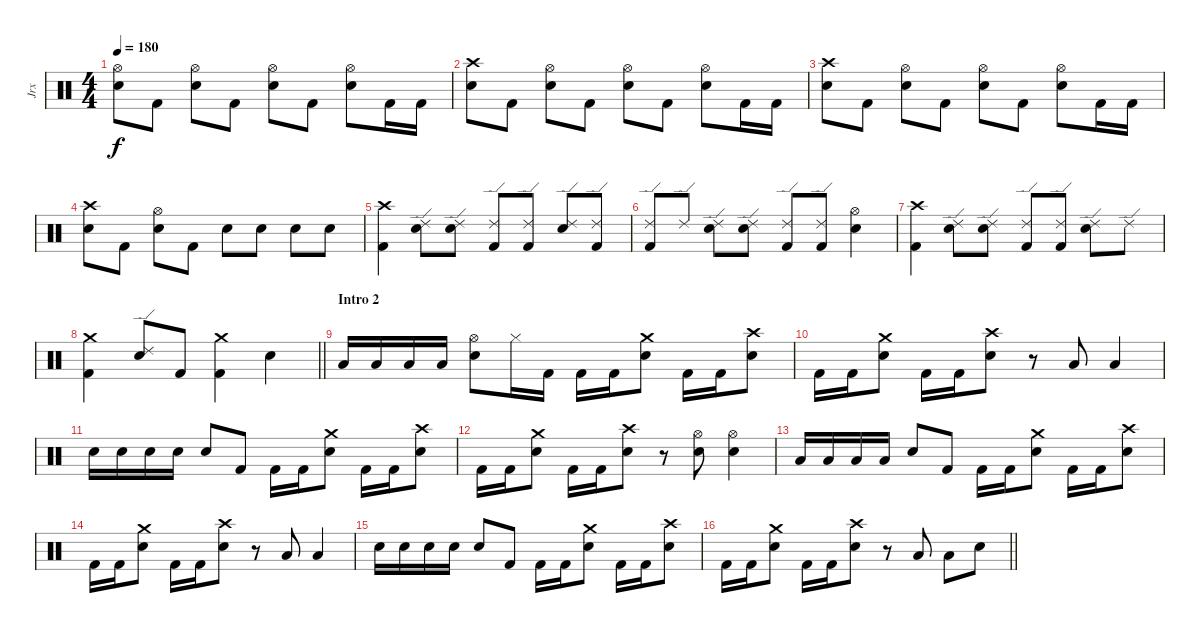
\track ("Jrx" "Jrx") {instrument percussion}
\staff {score}
\articulation defaults
\ts (4 4)
\tempo 180
\clef neutral
\ks c
("Electric Snare (hit)" "Hi-Hat (open)").8{dy f} "Kick (hit) 2".8 ("Electric Snare (hit)" "Hi-Hat (open)").8 "Kick (hit) 2".8 ("Snare (hit) 2" "Hi-Hat (open)").8 "Kick (hit) 2".8 ("Electric Snare (hit)" "Hi-Hat (open)").8 "Kick (hit) 2".16 "Kick (hit) 2".16 |
("Electric Snare (hit)" "Crash high (hit)").8 "Kick (hit) 2".8 ("Electric Snare (hit)" "Hi-Hat (open)").8 "Kick (hit) 2".8 ("Snare (hit) 2" "Hi-Hat (open)").8 "Kick (hit) 2".8 ("Electric Snare (hit)" "Hi-Hat (open)").8 "Kick (hit) 2".16 "Kick (hit) 2".16 |
("Electric Snare (hit)" "Crash high (hit)").8 "Kick (hit) 2".8 ("Electric Snare (hit)" "Hi-Hat (open)").8 "Kick (hit) 2".8 ("Snare (hit) 2" "Hi-Hat (open)").8 "Kick (hit) 2".8 ("Electric Snare (hit)" "Hi-Hat (open)").8 "Kick (hit) 2".16 "Kick (hit) 2".16 |
("Electric Snare (hit)" "Crash high (hit)").8 "Kick (hit) 2".8 ("Electric Snare (hit)" "Hi-Hat (open)").8 "Kick (hit) 2".8 "Electric Snare (hit)".8 "Electric Snare (hit)".8 "Electric Snare (hit)".8 "Electric Snare (hit)".8 |
("Kick (hit) 2" "Crash high (hit)").4 ("Electric Snare (hit)" "Ride (edge) 2").8 ("Electric Snare (hit)" "Ride (edge) 2").8 ("Kick (hit) 2" "Ride (edge) 2").8 ("Kick (hit) 2" "Ride (edge) 2").8 ("Electric Snare (hit)" "Ride (edge) 2").8 ("Kick (hit) 2" "Ride (edge) 2").8 |
("Kick (hit) 2" "Ride (edge) 2").8 "Ride (edge) 2".8 ("Electric Snare (hit)" "Ride (edge) 2").8 ("Electric Snare (hit)" "Ride (edge) 2").8 ("Kick (hit) 2" "Ride (edge) 2").8 ("Kick (hit) 2" "Ride (edge) 2").8 ("Electric Snare (hit)" "Hi-Hat (open)").4 |
("Kick (hit) 2" "Crash high (hit)").4 ("Electric Snare (hit)" "Ride (edge) 2").8 ("Electric Snare (hit)" "Ride (edge) 2").8 ("Kick (hit) 2" "Ride (edge) 2").8 ("Kick (hit) 2" "Ride (edge) 2").8 ("Electric Snare (hit)" "Ride (edge) 2").8 "Ride (edge) 2".8 |
\barLineRight lightlight
("Kick (hit) 2" "Crash medium (hit)").4 ("Electric Snare (hit)" "Ride (edge) 2").8 "Kick (hit) 2".8 ("Kick (hit) 2" "Crash medium (hit)").4 "Electric Snare (hit)".4 |
\section ("" "Intro 2")
"Low Tom (hit)".16 "Low Tom (hit)".16 "Low Tom (hit)".16 "Low Tom (hit)".16 ("Electric Snare (hit)" "Hi-Hat (open)").8 "Hi-Hat (closed)".16 "Kick (hit) 2".16 "Kick (hit) 2".16 "Kick (hit) 2".16 ("Electric Snare (hit)" "Crash medium (hit)").8 "Kick (hit) 2".16 "Kick (hit) 2".16 ("Electric Snare (hit)" "Crash high (hit)").8 |
"Kick (hit) 2".16 "Kick (hit) 2".16 ("Electric Snare (hit)" "Crash medium (hit)").8 "Kick (hit) 2".16 "Kick (hit) 2".16 ("Electric Snare (hit)" "Crash high (hit)").8 r.8 "Low Tom (hit)".8 "Low Tom (hit)".4 |
"Electric Snare (hit)".16 "Electric Snare (hit)".16 "Electric Snare (hit)".16 "Electric Snare (hit)".16 "Electric Snare (hit)".8 "Kick (hit) 2".8 "Kick (hit) 2".16 "Kick (hit) 2".16 ("Electric Snare (hit)" "Crash medium (hit)").8 "Kick (hit) 2".16 "Kick (hit) 2".16 ("Electric Snare (hit)" "Crash high (hit)").8 |
"Kick (hit) 2".16 "Kick (hit) 2".16 ("Electric Snare (hit)" "Crash medium (hit)").8 "Kick (hit) 2".16 "Kick (hit) 2".16 ("Electric Snare (hit)" "Crash high (hit)").8 r.8 ("Electric Snare (hit)" "Hi-Hat (open)").8 ("Electric Snare (hit)" "Hi-Hat (open)").4 |
"Low Tom (hit)".16 "Low Tom (hit)".16 "Low Tom (hit)".16 "Low Tom (hit)".16 "Electric Snare (hit)".8 "Kick (hit) 2".8 "Kick (hit) 2".16 "Kick (hit) 2".16 ("Electric Snare (hit)" "Crash medium (hit)").8 "Kick (hit) 2".16 "Kick (hit) 2".16 ("Electric Snare (hit)" "Crash high (hit)").8 |
"Kick (hit) 2".16 "Kick (hit) 2".16 ("Electric Snare (hit)" "Crash medium (hit)").8 "Kick (hit) 2".16 "Kick (hit) 2".16 ("Electric Snare (hit)" "Crash high (hit)").8 r.8 "Low Tom (hit)".8 "Low Tom (hit)".4 |
"Electric Snare (hit)".16 "Electric Snare (hit)".16 "Electric Snare (hit)".16 "Electric Snare (hit)".16 "Electric Snare (hit)".8 "Kick (hit) 2".8 "Kick (hit) 2".16 "Kick (hit) 2".16 ("Electric Snare (hit)" "Crash medium (hit)").8 "Kick (hit) 2".16 "Kick (hit) 2".16 ("Electric Snare (hit)" "Crash high (hit)").8 |
\barLineRight lightlight "Kick (hit) 2".16 "Kick (hit) 2".16
("Electric Snare (hit)" "Crash medium (hit)").8 "Kick (hit) 2".16 "Kick (hit) 2".16 ("Electric Snare (hit)" "Crash high (hit)").8 r.8 "Low Tom (hit)".8 "Low Tom (hit)".8 "Electric Snare (hit)".8
